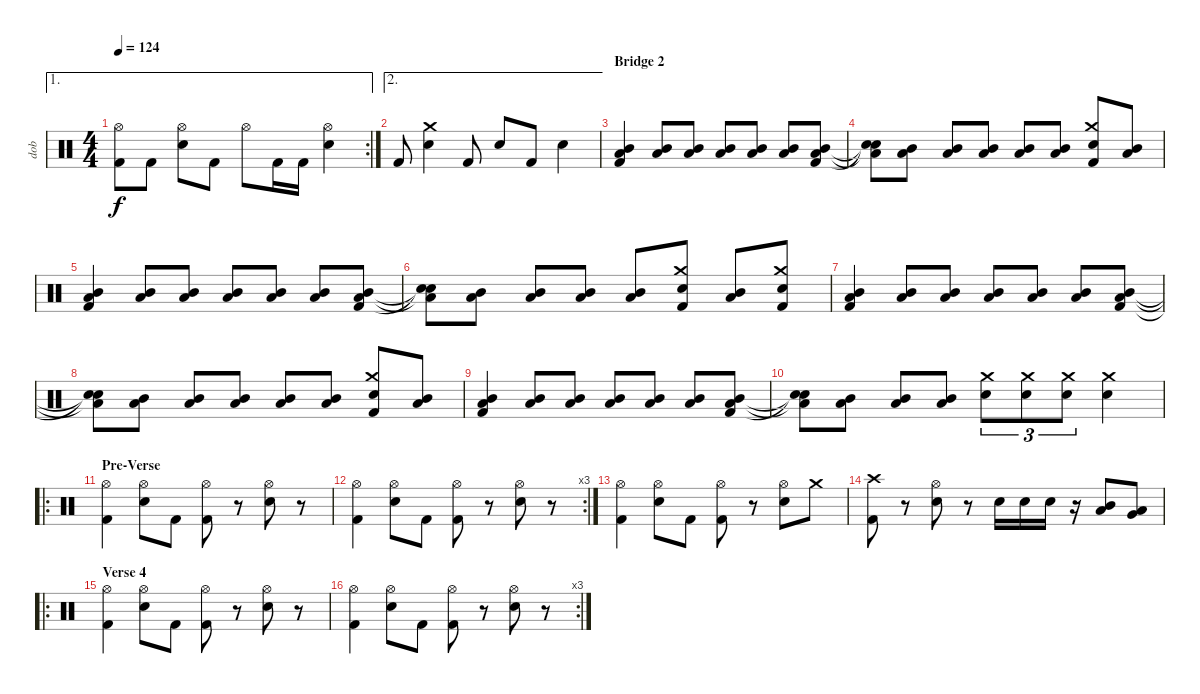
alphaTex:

\track ("dob" "dob") {instrument percussion}
\staff {score}
\articulation defaults
\ae 1
\rc 2
\ts (4 4)
\tempo 124
\clef neutral
\ks c
("Hi-Hat (open)" "Kick (hit) 2").8{dy f} "Kick (hit) 2".8 ("Hi-Hat (open)" "Snare (hit) 2").8 "Kick (hit) 2".8 "Hi-Hat (open)".8 "Kick (hit) 2".16 "Kick (hit) 2".16 ("Hi-Hat (open)" "Snare (hit) 2").4 |
\ae 2 "Kick (hit) 2".8
("Crash medium (hit)" "Electric Snare (hit)").4 "Kick (hit) 2".8 "Electric Snare (hit)".8 "Kick (hit) 2".8 "Electric Snare (hit)".4 |
\section ("" "Bridge 2")
("Kick (hit) 2" "Mid Tom (hit)" "Low Tom (hit)").4 ("Mid Tom (hit)" "Low Tom (hit)").8 ("Mid Tom (hit)" "Low Tom (hit)").8 ("Mid Tom (hit)" "Low Tom (hit)").8 ("Mid Tom (hit)" "Low Tom (hit)").8 ("Mid Tom (hit)" "Low Tom (hit)").8 ("Kick (hit) 2" "Mid Tom (hit)" "Low Tom (hit)").8 |
("Snare (hit)"{t} "Snare (hit)"{t} "Low Tom (hit)"{t}).8 ("Mid Tom (hit)" "Low Tom (hit)").8 ("Mid Tom (hit)" "Low Tom (hit)").8 ("Mid Tom (hit)" "Low Tom (hit)").8 ("Mid Tom (hit)" "Low Tom (hit)").8 ("Mid Tom (hit)" "Low Tom (hit)").8 ("Crash medium (hit)" "Electric Snare (hit)" "Kick (hit) 2").8 ("Mid Tom (hit)" "Low Tom (hit)").8 |
("Low Tom (hit)" "Mid Tom (hit)" "Kick (hit) 2").4 ("Mid Tom (hit)" "Low Tom (hit)").8 ("Mid Tom (hit)" "Low Tom (hit)").8 ("Mid Tom (hit)" "Low Tom (hit)").8 ("Mid Tom (hit)" "Low Tom (hit)").8 ("Mid Tom (hit)" "Low Tom (hit)").8 ("Kick (hit) 2" "Mid Tom (hit)" "Low Tom (hit)").8 |
("Snare (hit)"{t} "Snare (hit)"{t} "Low Tom (hit)"{t}).8 ("Mid Tom (hit)" "Low Tom (hit)").8 ("Mid Tom (hit)" "Low Tom (hit)").8 ("Mid Tom (hit)" "Low Tom (hit)").8 ("Mid Tom (hit)" "Low Tom (hit)").8 ("Crash medium (hit)" "Electric Snare (hit)" "Kick (hit) 2").8 ("Mid Tom (hit)" "Low Tom (hit)").8 ("Crash medium (hit)" "Electric Snare (hit)" "Kick (hit) 2").8 |
("Kick (hit) 2" "Mid Tom (hit)" "Low Tom (hit)").4 ("Mid Tom (hit)" "Low Tom (hit)").8 ("Mid Tom (hit)" "Low Tom (hit)").8 ("Mid Tom (hit)" "Low Tom (hit)").8 ("Mid Tom (hit)" "Low Tom (hit)").8 ("Mid Tom (hit)" "Low Tom (hit)").8 ("Kick (hit) 2" "Mid Tom (hit)" "Low Tom (hit)").8 |
("Snare (hit)"{t} "Snare (hit)"{t} "Low Tom (hit)"{t}).8 ("Mid Tom (hit)" "Low Tom (hit)").8 ("Mid Tom (hit)" "Low Tom (hit)").8 ("Mid Tom (hit)" "Low Tom (hit)").8 ("Mid Tom (hit)" "Low Tom (hit)").8 ("Mid Tom (hit)" "Low Tom (hit)").8 ("Crash medium (hit)" "Electric Snare (hit)" "Kick (hit) 2").8 ("Mid Tom (hit)" "Low Tom (hit)").8 |
("Kick (hit) 2" "Mid Tom (hit)" "Low Tom (hit)").4 ("Mid Tom (hit)" "Low Tom (hit)").8 ("Mid Tom (hit)" "Low Tom (hit)").8 ("Mid Tom (hit)" "Low Tom (hit)").8 ("Mid Tom (hit)" "Low Tom (hit)").8 ("Mid Tom (hit)" "Low Tom (hit)").8 ("Kick (hit) 2" "Mid Tom (hit)" "Low Tom (hit)").8 |
("Snare (hit)"{t} "Snare (hit)"{t} "Low Tom (hit)"{t}).8 ("Mid Tom (hit)" "Low Tom (hit)").8 ("Mid Tom (hit)" "Low Tom (hit)").8 ("Mid Tom (hit)" "Low Tom (hit)").8 ("Crash medium (hit)" "Electric Snare (hit)").8{tu (3 2)} ("Crash medium (hit)" "Electric Snare (hit)").8{tu (3 2)} ("Crash medium (hit)" "Electric Snare (hit)").8{tu (3 2)} ("Crash medium (hit)" "Electric Snare (hit)").4 |
\ro
\section ("" "Pre-Verse")
("Hi-Hat (open)" "Kick (hit) 2").4 ("Hi-Hat (open)" "Electric Snare (hit)").8 "Kick (hit) 2".8 ("Hi-Hat (open)" "Kick (hit) 2").8 r.8 ("Hi-Hat (open)" "Electric Snare (hit)").8 r.8 |
\rc 3
("Hi-Hat (open)" "Kick (hit) 2").4 ("Hi-Hat (open)" "Electric Snare (hit)").8 "Kick (hit) 2".8 ("Hi-Hat (open)" "Kick (hit) 2").8 r.8 ("Hi-Hat (open)" "Electric Snare (hit)").8 r.8 |
("Hi-Hat (open)" "Kick (hit) 2").4 ("Hi-Hat (open)" "Electric Snare (hit)").8 "Kick (hit) 2".8 ("Hi-Hat (open)" "Kick (hit) 2").8 r.8 ("Hi-Hat (open)" "Electric Snare (hit)").8 "Crash medium (hit)".8 |
("Crash high (hit)" "Kick (hit) 2").8 r.8 ("Hi-Hat (open)" "Electric Snare (hit)").8 r.8 "Electric Snare (hit)".16 "Electric Snare (hit)".16 "Electric Snare (hit)".16 r.16 ("Mid Tom (hit)" "Low Tom (hit)").8 ("Low Tom (hit)" "Very Low Tom (hit)").8 |
\ro
\section ("" "Verse 4")
("Hi-Hat (open)" "Kick (hit) 2").4 ("Hi-Hat (open)" "Electric Snare (hit)").8 "Kick (hit) 2".8 ("Hi-Hat (open)" "Kick (hit) 2").8 r.8 ("Hi-Hat (open)" "Electric Snare (hit)").8 r.8 |
\rc 3
("Hi-Hat (open)" "Kick (hit) 2").4 ("Hi-Hat (open)" "Electric Snare (hit)").8 "Kick (hit) 2".8 ("Hi-Hat (open)" "Kick (hit) 2").8 r.8 ("Hi-Hat (open)" "Electric Snare (hit)").8 r.8
